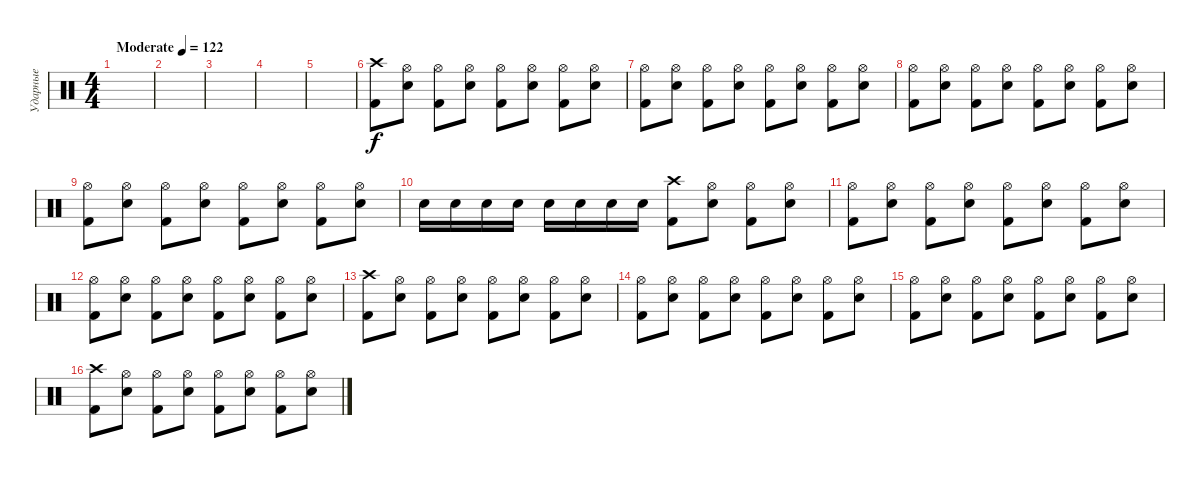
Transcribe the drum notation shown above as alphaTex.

\track ("Ударные" "Ударные") {instrument percussion}
\staff {score}
\articulation defaults
\ts (4 4)
\tempo (122 "Moderate")
\clef neutral
\ks c
|
|
|
|
|
("Kick (hit) 2" "Crash high (hit)").8 ("Snare (hit) 2" "Hi-Hat (open)").8 ("Kick (hit) 2" "Hi-Hat (open)").8 ("Snare (hit) 2" "Hi-Hat (open)").8 ("Kick (hit) 2" "Hi-Hat (open)").8 ("Snare (hit) 2" "Hi-Hat (open)").8 ("Kick (hit) 2" "Hi-Hat (open)").8 ("Snare (hit) 2" "Hi-Hat (open)").8 |
("Kick (hit) 2" "Hi-Hat (open)").8 ("Snare (hit) 2" "Hi-Hat (open)").8 ("Kick (hit) 2" "Hi-Hat (open)").8 ("Snare (hit) 2" "Hi-Hat (open)").8 ("Kick (hit) 2" "Hi-Hat (open)").8 ("Snare (hit) 2" "Hi-Hat (open)").8 ("Kick (hit) 2" "Hi-Hat (open)").8 ("Snare (hit) 2" "Hi-Hat (open)").8 |
("Kick (hit) 2" "Hi-Hat (open)").8 ("Snare (hit) 2" "Hi-Hat (open)").8 ("Kick (hit) 2" "Hi-Hat (open)").8 ("Snare (hit) 2" "Hi-Hat (open)").8 ("Kick (hit) 2" "Hi-Hat (open)").8 ("Snare (hit) 2" "Hi-Hat (open)").8 ("Kick (hit) 2" "Hi-Hat (open)").8 ("Snare (hit) 2" "Hi-Hat (open)").8 |
("Kick (hit) 2" "Hi-Hat (open)").8 ("Snare (hit) 2" "Hi-Hat (open)").8 ("Kick (hit) 2" "Hi-Hat (open)").8 ("Snare (hit) 2" "Hi-Hat (open)").8 ("Kick (hit) 2" "Hi-Hat (open)").8 ("Snare (hit) 2" "Hi-Hat (open)").8 ("Kick (hit) 2" "Hi-Hat (open)").8 ("Snare (hit) 2" "Hi-Hat (open)").8 |
"Snare (hit) 2".16 "Snare (hit) 2".16 "Snare (hit) 2".16 "Snare (hit) 2".16 "Snare (hit) 2".16 "Snare (hit) 2".16 "Snare (hit) 2".16 "Snare (hit) 2".16 ("Kick (hit) 2" "Crash high (hit)").8 ("Snare (hit) 2" "Hi-Hat (open)").8 ("Kick (hit) 2" "Hi-Hat (open)").8 ("Snare (hit) 2" "Hi-Hat (open)").8 |
("Kick (hit) 2" "Hi-Hat (open)").8 ("Snare (hit) 2" "Hi-Hat (open)").8 ("Kick (hit) 2" "Hi-Hat (open)").8 ("Snare (hit) 2" "Hi-Hat (open)").8 ("Kick (hit) 2" "Hi-Hat (open)").8 ("Snare (hit) 2" "Hi-Hat (open)").8 ("Kick (hit) 2" "Hi-Hat (open)").8 ("Snare (hit) 2" "Hi-Hat (open)").8 |
("Kick (hit) 2" "Hi-Hat (open)").8 ("Snare (hit) 2" "Hi-Hat (open)").8 ("Kick (hit) 2" "Hi-Hat (open)").8 ("Snare (hit) 2" "Hi-Hat (open)").8 ("Kick (hit) 2" "Hi-Hat (open)").8 ("Snare (hit) 2" "Hi-Hat (open)").8 ("Kick (hit) 2" "Hi-Hat (open)").8 ("Snare (hit) 2" "Hi-Hat (open)").8 |
("Kick (hit) 2" "Crash high (hit)").8 ("Snare (hit) 2" "Hi-Hat (open)").8 ("Kick (hit) 2" "Hi-Hat (open)").8 ("Snare (hit) 2" "Hi-Hat (open)").8 ("Kick (hit) 2" "Hi-Hat (open)").8 ("Snare (hit) 2" "Hi-Hat (open)").8 ("Kick (hit) 2" "Hi-Hat (open)").8 ("Snare (hit) 2" "Hi-Hat (open)").8 |
("Kick (hit) 2" "Hi-Hat (open)").8 ("Snare (hit) 2" "Hi-Hat (open)").8 ("Kick (hit) 2" "Hi-Hat (open)").8 ("Snare (hit) 2" "Hi-Hat (open)").8 ("Kick (hit) 2" "Hi-Hat (open)").8 ("Snare (hit) 2" "Hi-Hat (open)").8 ("Kick (hit) 2" "Hi-Hat (open)").8 ("Snare (hit) 2" "Hi-Hat (open)").8 |
("Kick (hit) 2" "Hi-Hat (open)").8 ("Snare (hit) 2" "Hi-Hat (open)").8 ("Kick (hit) 2" "Hi-Hat (open)").8 ("Snare (hit) 2" "Hi-Hat (open)").8 ("Kick (hit) 2" "Hi-Hat (open)").8 ("Snare (hit) 2" "Hi-Hat (open)").8 ("Kick (hit) 2" "Hi-Hat (open)").8 ("Snare (hit) 2" "Hi-Hat (open)").8 |
("Kick (hit) 2" "Crash high (hit)").8 ("Snare (hit) 2" "Hi-Hat (open)").8 ("Kick (hit) 2" "Hi-Hat (open)").8 ("Snare (hit) 2" "Hi-Hat (open)").8 ("Kick (hit) 2" "Hi-Hat (open)").8 ("Snare (hit) 2" "Hi-Hat (open)").8 ("Kick (hit) 2" "Hi-Hat (open)").8 ("Snare (hit) 2" "Hi-Hat (open)").8
